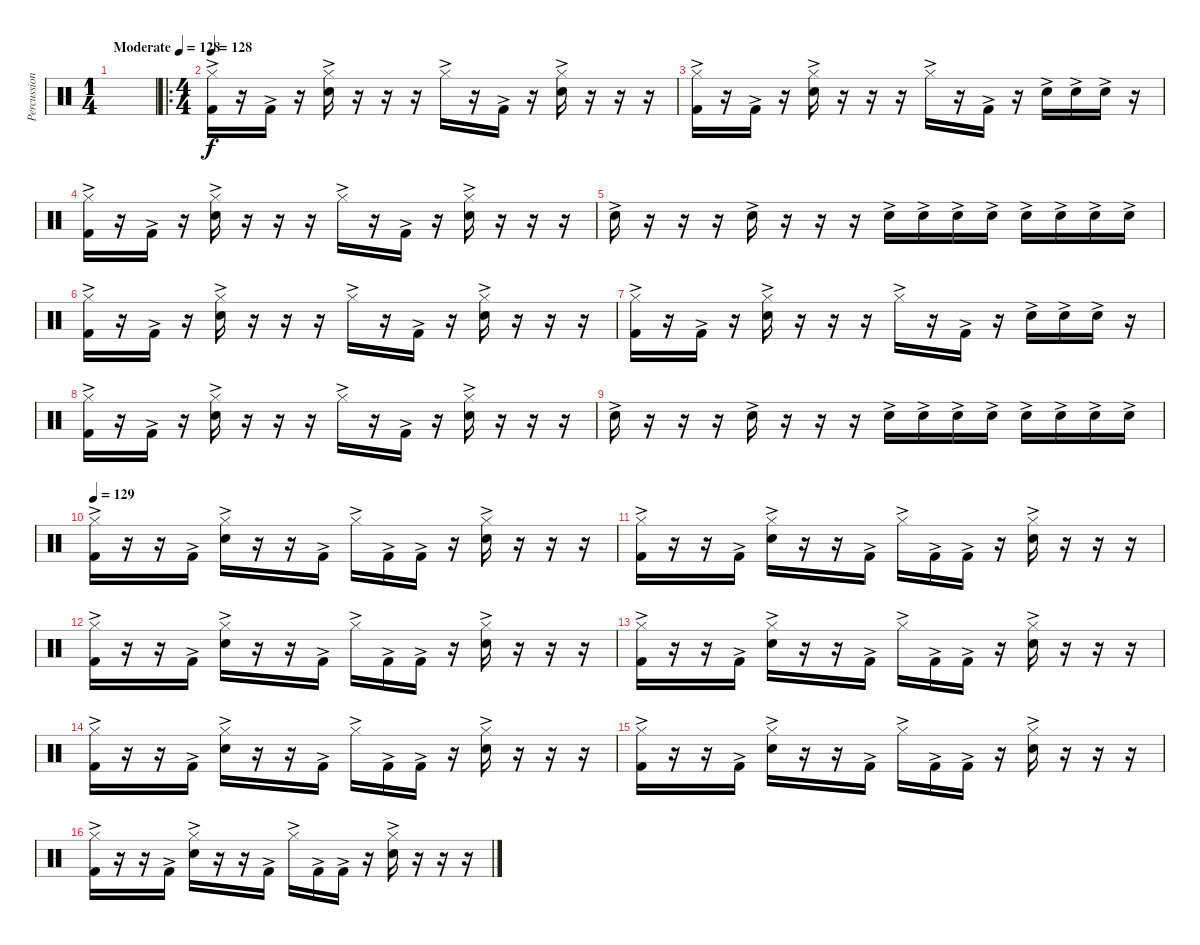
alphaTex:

\track ("Percussion" "Percussion") {instrument percussion}
\staff {score}
\articulation defaults
\ts (1 4)
\tempo (128 "Moderate")
\clef neutral
\ks c
|
\ro
\ts (4 4)
\tempo 128
("Hi-Hat (closed)"{ac} "Kick (hit) 2"{ac}).16 r.16 "Kick (hit) 2"{ac}.16 r.16 ("Hi-Hat (closed)"{ac} "Snare (hit) 2"{ac}).16 r.16 r.16 r.16 "Hi-Hat (closed)"{ac}.16 r.16 "Kick (hit) 2"{ac}.16 r.16 ("Hi-Hat (closed)"{ac} "Snare (hit) 2"{ac}).16 r.16 r.16 r.16 |
("Hi-Hat (closed)"{ac} "Kick (hit) 2"{ac}).16 r.16 "Kick (hit) 2"{ac}.16 r.16 ("Hi-Hat (closed)"{ac} "Snare (hit) 2"{ac}).16 r.16 r.16 r.16 "Hi-Hat (closed)"{ac}.16 r.16 "Kick (hit) 2"{ac}.16 r.16 "Snare (hit) 2"{ac}.16 "Snare (hit) 2"{ac}.16 "Snare (hit) 2"{ac}.16 r.16 |
("Hi-Hat (closed)"{ac} "Kick (hit) 2"{ac}).16 r.16 "Kick (hit) 2"{ac}.16 r.16 ("Hi-Hat (closed)"{ac} "Snare (hit) 2"{ac}).16 r.16 r.16 r.16 "Hi-Hat (closed)"{ac}.16 r.16 "Kick (hit) 2"{ac}.16 r.16 ("Hi-Hat (closed)"{ac} "Snare (hit) 2"{ac}).16 r.16 r.16 r.16 |
"Snare (hit) 2"{ac}.16 r.16 r.16 r.16 "Snare (hit) 2"{ac}.16 r.16 r.16 r.16 "Snare (hit) 2"{ac}.16 "Snare (hit) 2"{ac}.16 "Snare (hit) 2"{ac}.16 "Snare (hit) 2"{ac}.16 "Snare (hit) 2"{ac}.16 "Snare (hit) 2"{ac}.16 "Snare (hit) 2"{ac}.16 "Snare (hit) 2"{ac}.16 |
("Hi-Hat (closed)"{ac} "Kick (hit) 2"{ac}).16 r.16 "Kick (hit) 2"{ac}.16 r.16 ("Hi-Hat (closed)"{ac} "Snare (hit) 2"{ac}).16 r.16 r.16 r.16 "Hi-Hat (closed)"{ac}.16 r.16 "Kick (hit) 2"{ac}.16 r.16 ("Hi-Hat (closed)"{ac} "Snare (hit) 2"{ac}).16 r.16 r.16 r.16 |
("Hi-Hat (closed)"{ac} "Kick (hit) 2"{ac}).16 r.16 "Kick (hit) 2"{ac}.16 r.16 ("Hi-Hat (closed)"{ac} "Snare (hit) 2"{ac}).16 r.16 r.16 r.16 "Hi-Hat (closed)"{ac}.16 r.16 "Kick (hit) 2"{ac}.16 r.16 "Snare (hit) 2"{ac}.16 "Snare (hit) 2"{ac}.16 "Snare (hit) 2"{ac}.16 r.16 |
("Hi-Hat (closed)"{ac} "Kick (hit) 2"{ac}).16 r.16 "Kick (hit) 2"{ac}.16 r.16 ("Hi-Hat (closed)"{ac} "Snare (hit) 2"{ac}).16 r.16 r.16 r.16 "Hi-Hat (closed)"{ac}.16 r.16 "Kick (hit) 2"{ac}.16 r.16 ("Hi-Hat (closed)"{ac} "Snare (hit) 2"{ac}).16 r.16 r.16 r.16 |
"Snare (hit) 2"{ac}.16 r.16 r.16 r.16 "Snare (hit) 2"{ac}.16 r.16 r.16 r.16 "Snare (hit) 2"{ac}.16 "Snare (hit) 2"{ac}.16 "Snare (hit) 2"{ac}.16 "Snare (hit) 2"{ac}.16 "Snare (hit) 2"{ac}.16 "Snare (hit) 2"{ac}.16 "Snare (hit) 2"{ac}.16 "Snare (hit) 2"{ac}.16 |
\tempo 129
("Hi-Hat (closed)"{ac} "Kick (hit) 2"{ac}).16 r.16 r.16 "Kick (hit) 2"{ac}.16 ("Hi-Hat (closed)"{ac} "Snare (hit) 2"{ac}).16 r.16 r.16 "Kick (hit) 2"{ac}.16 "Hi-Hat (closed)"{ac}.16 "Kick (hit) 2"{ac}.16 "Kick (hit) 2"{ac}.16 r.16 ("Hi-Hat (closed)"{ac} "Snare (hit) 2"{ac}).16 r.16 r.16 r.16 |
("Hi-Hat (closed)"{ac} "Kick (hit) 2"{ac}).16 r.16 r.16 "Kick (hit) 2"{ac}.16 ("Hi-Hat (closed)"{ac} "Snare (hit) 2"{ac}).16 r.16 r.16 "Kick (hit) 2"{ac}.16 "Hi-Hat (closed)"{ac}.16 "Kick (hit) 2"{ac}.16 "Kick (hit) 2"{ac}.16 r.16 ("Hi-Hat (closed)"{ac} "Snare (hit) 2"{ac}).16 r.16 r.16 r.16 |
("Hi-Hat (closed)"{ac} "Kick (hit) 2"{ac}).16 r.16 r.16 "Kick (hit) 2"{ac}.16 ("Hi-Hat (closed)"{ac} "Snare (hit) 2"{ac}).16 r.16 r.16 "Kick (hit) 2"{ac}.16 "Hi-Hat (closed)"{ac}.16 "Kick (hit) 2"{ac}.16 "Kick (hit) 2"{ac}.16 r.16 ("Hi-Hat (closed)"{ac} "Snare (hit) 2"{ac}).16 r.16 r.16 r.16 |
("Hi-Hat (closed)"{ac} "Kick (hit) 2"{ac}).16 r.16 r.16 "Kick (hit) 2"{ac}.16 ("Hi-Hat (closed)"{ac} "Snare (hit) 2"{ac}).16 r.16 r.16 "Kick (hit) 2"{ac}.16 "Hi-Hat (closed)"{ac}.16 "Kick (hit) 2"{ac}.16 "Kick (hit) 2"{ac}.16 r.16 ("Hi-Hat (closed)"{ac} "Snare (hit) 2"{ac}).16 r.16 r.16 r.16 |
("Hi-Hat (closed)"{ac} "Kick (hit) 2"{ac}).16 r.16 r.16 "Kick (hit) 2"{ac}.16 ("Hi-Hat (closed)"{ac} "Snare (hit) 2"{ac}).16 r.16 r.16 "Kick (hit) 2"{ac}.16 "Hi-Hat (closed)"{ac}.16 "Kick (hit) 2"{ac}.16 "Kick (hit) 2"{ac}.16 r.16 ("Hi-Hat (closed)"{ac} "Snare (hit) 2"{ac}).16 r.16 r.16 r.16 |
("Hi-Hat (closed)"{ac} "Kick (hit) 2"{ac}).16 r.16 r.16 "Kick (hit) 2"{ac}.16 ("Hi-Hat (closed)"{ac} "Snare (hit) 2"{ac}).16 r.16 r.16 "Kick (hit) 2"{ac}.16 "Hi-Hat (closed)"{ac}.16 "Kick (hit) 2"{ac}.16 "Kick (hit) 2"{ac}.16 r.16 ("Hi-Hat (closed)"{ac} "Snare (hit) 2"{ac}).16 r.16 r.16 r.16 |
("Hi-Hat (closed)"{ac} "Kick (hit) 2"{ac}).16 r.16 r.16 "Kick (hit) 2"{ac}.16 ("Hi-Hat (closed)"{ac} "Snare (hit) 2"{ac}).16 r.16 r.16 "Kick (hit) 2"{ac}.16 "Hi-Hat (closed)"{ac}.16 "Kick (hit) 2"{ac}.16 "Kick (hit) 2"{ac}.16 r.16 ("Hi-Hat (closed)"{ac} "Snare (hit) 2"{ac}).16 r.16 r.16 r.16
